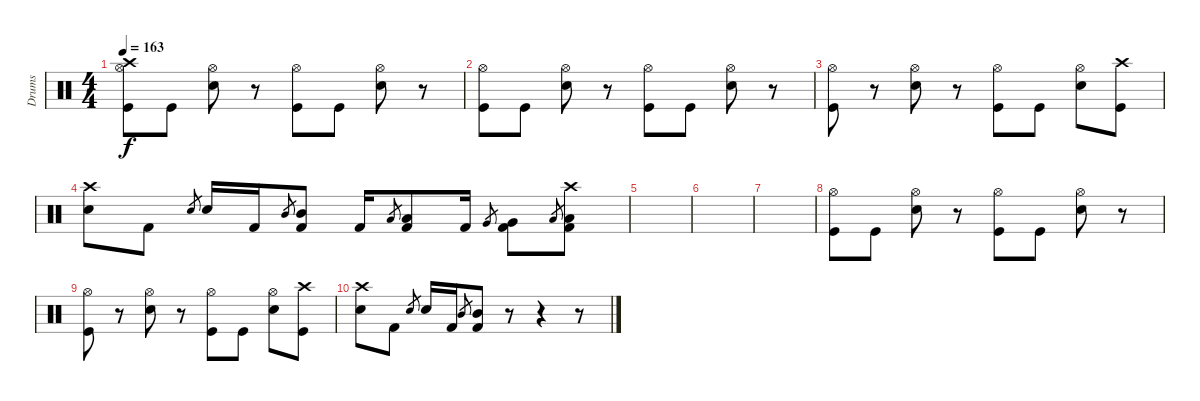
\track ("Drums" "Drums") {instrument percussion}
\staff {score}
\articulation defaults
\ts (4 4)
\tempo 163
\clef neutral
\ks c
("Crash high (hit)" "Kick (hit)" "Hi-Hat (open)").8{dy f} "Kick (hit)".8 ("Electric Snare (hit)" "Hi-Hat (open)").8 r.8 ("Kick (hit)" "Hi-Hat (open)").8 "Kick (hit)".8 ("Electric Snare (hit)" "Hi-Hat (open)").8 r.8 |
("Kick (hit)" "Hi-Hat (open)").8 "Kick (hit)".8 ("Electric Snare (hit)" "Hi-Hat (open)").8 r.8 ("Kick (hit)" "Hi-Hat (open)").8 "Kick (hit)".8 ("Electric Snare (hit)" "Hi-Hat (open)").8 r.8 |
("Kick (hit)" "Hi-Hat (open)").8 r.8 ("Electric Snare (hit)" "Hi-Hat (open)").8 r.8 ("Kick (hit)" "Hi-Hat (open)").8 "Kick (hit)".8 ("Electric Snare (hit)" "Hi-Hat (open)").8 ("Kick (hit)" "Crash high (hit)").8 |
("Crash high (hit)" "Snare (hit) 2").8 "Kick (hit) 2".8 "Snare (hit) 2".8{gr} "Snare (hit) 2".16 "Kick (hit) 2".16 "Mid Tom (hit)".8{gr} ("Kick (hit) 2" "Mid Tom (hit)").8 "Kick (hit) 2".16 "Low Tom (hit)".8{gr} ("Kick (hit) 2" "Low Tom (hit)").8 "Kick (hit) 2".16 "Very Low Tom (hit)".8{gr} ("Kick (hit) 2" "Very Low Tom (hit)").8 "Low Floor Tom (hit)".8{gr} ("Crash high (hit)" "Kick (hit) 2" "Low Floor Tom (hit)").8 |
|
|
|
("Kick (hit)" "Hi-Hat (open)").8 "Kick (hit)".8 ("Electric Snare (hit)" "Hi-Hat (open)").8 r.8 ("Kick (hit)" "Hi-Hat (open)").8 "Kick (hit)".8 ("Electric Snare (hit)" "Hi-Hat (open)").8 r.8 |
("Kick (hit)" "Hi-Hat (open)").8 r.8 ("Electric Snare (hit)" "Hi-Hat (open)").8 r.8 ("Kick (hit)" "Hi-Hat (open)").8 "Kick (hit)".8 ("Electric Snare (hit)" "Hi-Hat (open)").8 ("Kick (hit)" "Crash high (hit)").8 |
("Crash high (hit)" "Snare (hit) 2").8 "Kick (hit) 2".8 "Snare (hit) 2".8{gr} "Snare (hit) 2".16 "Kick (hit) 2".16 "Mid Tom (hit)".8{gr} ("Kick (hit) 2" "Mid Tom (hit)").8 r.8 r.4 r.8
